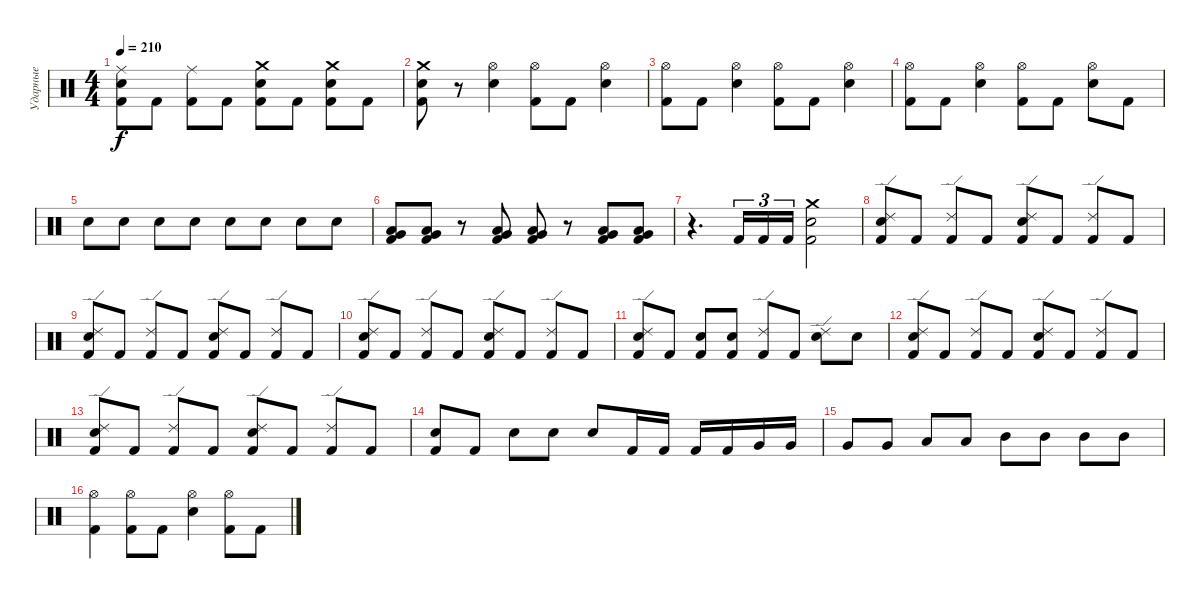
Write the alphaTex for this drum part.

\track ("Ударные" "Ударные") {instrument percussion}
\staff {score}
\articulation defaults
\ts (4 4)
\tempo 210
\clef neutral
\ks c
("Ride (middle)" "Snare (hit) 2" "Kick (hit) 2").8{dy f} "Kick (hit) 2".8 ("Ride (middle)" "Kick (hit) 2").8 "Kick (hit) 2".8 ("Crash medium (hit)" "Snare (hit) 2" "Kick (hit) 2").8 "Kick (hit) 2".8 ("Crash medium (hit)" "Snare (hit) 2" "Kick (hit) 2").8 "Kick (hit) 2".8 |
("Crash medium (hit)" "Snare (hit) 2" "Kick (hit) 2").8 r.8 ("Hi-Hat (open)" "Snare (hit) 2").4 ("Hi-Hat (open)" "Kick (hit) 2").8 "Kick (hit) 2".8 ("Hi-Hat (open)" "Snare (hit) 2").4 |
("Hi-Hat (open)" "Kick (hit) 2").8 "Kick (hit) 2".8 ("Hi-Hat (open)" "Snare (hit) 2").4 ("Hi-Hat (open)" "Kick (hit) 2").8 "Kick (hit) 2".8 ("Hi-Hat (open)" "Snare (hit) 2").4 |
("Hi-Hat (open)" "Kick (hit) 2").8 "Kick (hit) 2".8 ("Hi-Hat (open)" "Snare (hit) 2").4 ("Hi-Hat (open)" "Kick (hit) 2").8 "Kick (hit) 2".8 ("Hi-Hat (open)" "Snare (hit) 2").8 "Kick (hit) 2".8 |
"Snare (hit) 2".8 "Snare (hit) 2".8 "Snare (hit) 2".8 "Snare (hit) 2".8 "Snare (hit) 2".8 "Snare (hit) 2".8 "Snare (hit) 2".8 "Snare (hit) 2".8 |
("Very Low Tom (hit)" "Low Floor Tom (hit)" "Kick (hit) 2").8 ("Very Low Tom (hit)" "Low Floor Tom (hit)" "Kick (hit) 2").8 r.8 ("Very Low Tom (hit)" "Low Floor Tom (hit)" "Kick (hit) 2").8 ("Very Low Tom (hit)" "Low Floor Tom (hit)" "Kick (hit) 2").8 r.8 ("Very Low Tom (hit)" "Low Floor Tom (hit)" "Kick (hit) 2").8 ("Very Low Tom (hit)" "Low Floor Tom (hit)" "Kick (hit) 2").8 |
r.4{d} "Kick (hit) 2".16{tu (3 2)} "Kick (hit) 2".16{tu (3 2)} "Kick (hit) 2".16{tu (3 2)} ("Crash medium (hit)" "Snare (hit) 2" "Kick (hit) 2").2 |
("Ride (edge) 2" "Snare (hit) 2" "Kick (hit) 2").8 "Kick (hit) 2".8 ("Ride (edge) 2" "Kick (hit) 2").8 "Kick (hit) 2".8 ("Ride (edge) 2" "Snare (hit) 2" "Kick (hit) 2").8 "Kick (hit) 2".8 ("Ride (edge) 2" "Kick (hit) 2").8 "Kick (hit) 2".8 |
("Ride (edge) 2" "Snare (hit) 2" "Kick (hit) 2").8 "Kick (hit) 2".8 ("Ride (edge) 2" "Kick (hit) 2").8 "Kick (hit) 2".8 ("Ride (edge) 2" "Snare (hit) 2" "Kick (hit) 2").8 "Kick (hit) 2".8 ("Ride (edge) 2" "Kick (hit) 2").8 "Kick (hit) 2".8 |
("Ride (edge) 2" "Snare (hit) 2" "Kick (hit) 2").8 "Kick (hit) 2".8 ("Ride (edge) 2" "Kick (hit) 2").8 "Kick (hit) 2".8 ("Ride (edge) 2" "Snare (hit) 2" "Kick (hit) 2").8 "Kick (hit) 2".8 ("Ride (edge) 2" "Kick (hit) 2").8 "Kick (hit) 2".8 |
("Ride (edge) 2" "Snare (hit) 2" "Kick (hit) 2").8 "Kick (hit) 2".8 ("Snare (hit) 2" "Kick (hit) 2").8 ("Snare (hit) 2" "Kick (hit) 2").8 ("Ride (edge) 2" "Kick (hit) 2").8 "Kick (hit) 2".8 ("Ride (edge) 2" "Snare (hit) 2").8 "Snare (hit) 2".8 |
("Ride (edge) 2" "Snare (hit) 2" "Kick (hit) 2").8 "Kick (hit) 2".8 ("Ride (edge) 2" "Kick (hit) 2").8 "Kick (hit) 2".8 ("Ride (edge) 2" "Snare (hit) 2" "Kick (hit) 2").8 "Kick (hit) 2".8 ("Ride (edge) 2" "Kick (hit) 2").8 "Kick (hit) 2".8 |
("Ride (edge) 2" "Snare (hit) 2" "Kick (hit) 2").8 "Kick (hit) 2".8 ("Ride (edge) 2" "Kick (hit) 2").8 "Kick (hit) 2".8 ("Ride (edge) 2" "Snare (hit) 2" "Kick (hit) 2").8 "Kick (hit) 2".8 ("Ride (edge) 2" "Kick (hit) 2").8 "Kick (hit) 2".8 |
("Snare (hit) 2" "Kick (hit) 2").8 "Kick (hit) 2".8 "Snare (hit) 2".8 "Snare (hit) 2".8 "Snare (hit) 2".8 "Kick (hit) 2".16 "Kick (hit) 2".16 "Kick (hit) 2".16 "Kick (hit) 2".16 "Very Low Tom (hit)".16 "Very Low Tom (hit)".16 |
"Very Low Tom (hit)".8 "Very Low Tom (hit)".8 "Low Tom (hit)".8 "Low Tom (hit)".8 "Mid Tom (hit)".8 "Mid Tom (hit)".8 "Mid Tom (hit)".8 "Mid Tom (hit)".8 |
("Hi-Hat (open)" "Kick (hit) 2").4 ("Hi-Hat (open)" "Kick (hit) 2").8 "Kick (hit) 2".8 ("Hi-Hat (open)" "Snare (hit) 2").4 ("Hi-Hat (open)" "Kick (hit) 2").8 "Kick (hit) 2".8
